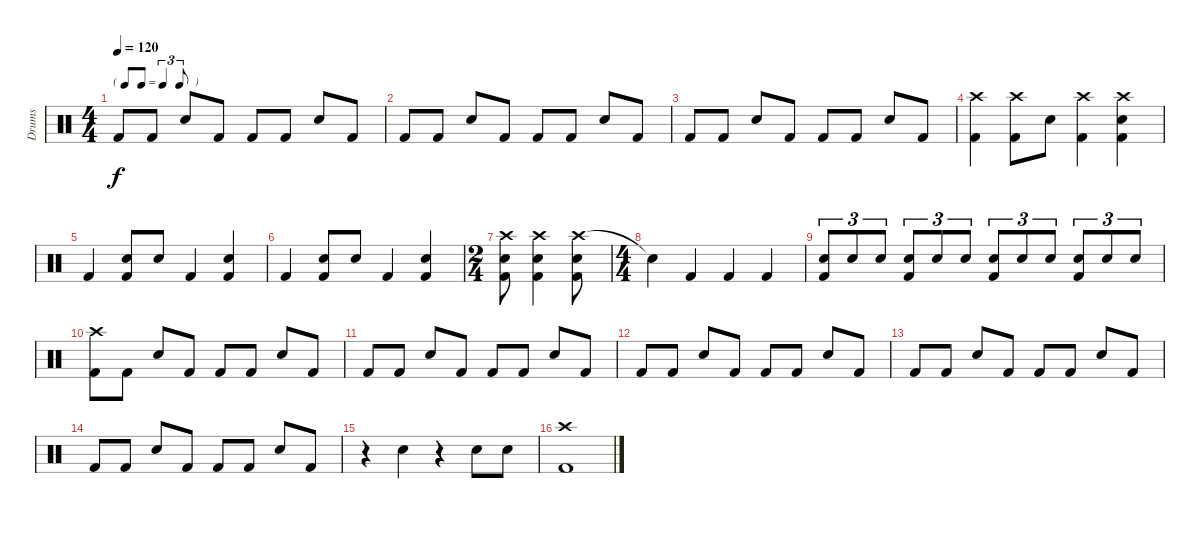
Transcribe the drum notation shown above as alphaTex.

\track ("Drums" "Drums") {instrument percussion}
\staff {score}
\articulation defaults
\ts (4 4)
\tf triplet8th
\tempo 120
\clef neutral
\ks c "Kick (hit) 2".8{dy f} "Kick (hit) 2".8 "Snare (hit) 2".8 "Kick (hit) 2".8 "Kick (hit) 2".8 "Kick (hit) 2".8 "Snare (hit) 2".8 "Kick (hit) 2".8
|
"Kick (hit) 2".8 "Kick (hit) 2".8 "Snare (hit) 2".8 "Kick (hit) 2".8 "Kick (hit) 2".8 "Kick (hit) 2".8 "Snare (hit) 2".8 "Kick (hit) 2".8 |
"Kick (hit) 2".8 "Kick (hit) 2".8 "Snare (hit) 2".8 "Kick (hit) 2".8 "Kick (hit) 2".8 "Kick (hit) 2".8 "Snare (hit) 2".8 "Kick (hit) 2".8 |
("Crash high (hit)" "Kick (hit) 2").4 ("Crash high (hit)" "Kick (hit) 2").8 "Snare (hit) 2".8 ("Crash high (hit)" "Kick (hit) 2").4 ("Crash high (hit)" "Snare (hit) 2" "Kick (hit) 2").4 |
"Kick (hit) 2".4 ("Snare (hit) 2" "Kick (hit) 2").8 "Snare (hit) 2".8 "Kick (hit) 2".4 ("Snare (hit) 2" "Kick (hit) 2").4 |
"Kick (hit) 2".4 ("Snare (hit) 2" "Kick (hit) 2").8 "Snare (hit) 2".8 "Kick (hit) 2".4 ("Snare (hit) 2" "Kick (hit) 2").4 |
\ts (2 4)
("Crash high (hit)" "Snare (hit) 2" "Kick (hit) 2").8 ("Crash high (hit)" "Snare (hit) 2" "Kick (hit) 2").4 ("Crash high (hit)" "Snare (hit) 2" "Kick (hit) 2").8 |
\ts (4 4)
"Snare (hit)"{t}.4 "Kick (hit) 2".4 "Kick (hit) 2".4 "Kick (hit) 2".4 |
("Snare (hit) 2" "Kick (hit) 2").8{tu (3 2)} "Snare (hit) 2".8{tu (3 2)} "Snare (hit) 2".8{tu (3 2)} ("Snare (hit) 2" "Kick (hit) 2").8{tu (3 2)} "Snare (hit) 2".8{tu (3 2)} "Snare (hit) 2".8{tu (3 2)} ("Snare (hit) 2" "Kick (hit) 2").8{tu (3 2)} "Snare (hit) 2".8{tu (3 2)} "Snare (hit) 2".8{tu (3 2)} ("Snare (hit) 2" "Kick (hit) 2").8{tu (3 2)} "Snare (hit) 2".8{tu (3 2)} "Snare (hit) 2".8{tu (3 2)} |
("Crash high (hit)" "Kick (hit) 2").8 "Kick (hit) 2".8 "Snare (hit) 2".8 "Kick (hit) 2".8 "Kick (hit) 2".8 "Kick (hit) 2".8 "Snare (hit) 2".8 "Kick (hit) 2".8 |
"Kick (hit) 2".8 "Kick (hit) 2".8 "Snare (hit) 2".8 "Kick (hit) 2".8 "Kick (hit) 2".8 "Kick (hit) 2".8 "Snare (hit) 2".8 "Kick (hit) 2".8 |
"Kick (hit) 2".8 "Kick (hit) 2".8 "Snare (hit) 2".8 "Kick (hit) 2".8 "Kick (hit) 2".8 "Kick (hit) 2".8 "Snare (hit) 2".8 "Kick (hit) 2".8 |
"Kick (hit) 2".8 "Kick (hit) 2".8 "Snare (hit) 2".8 "Kick (hit) 2".8 "Kick (hit) 2".8 "Kick (hit) 2".8 "Snare (hit) 2".8 "Kick (hit) 2".8 |
"Kick (hit) 2".8 "Kick (hit) 2".8 "Snare (hit) 2".8 "Kick (hit) 2".8 "Kick (hit) 2".8 "Kick (hit) 2".8 "Snare (hit) 2".8 "Kick (hit) 2".8 |
r.4 "Snare (hit) 2".4 r.4 "Snare (hit) 2".8 "Snare (hit) 2".8 |
("Crash high (hit)" "Kick (hit) 2").1
